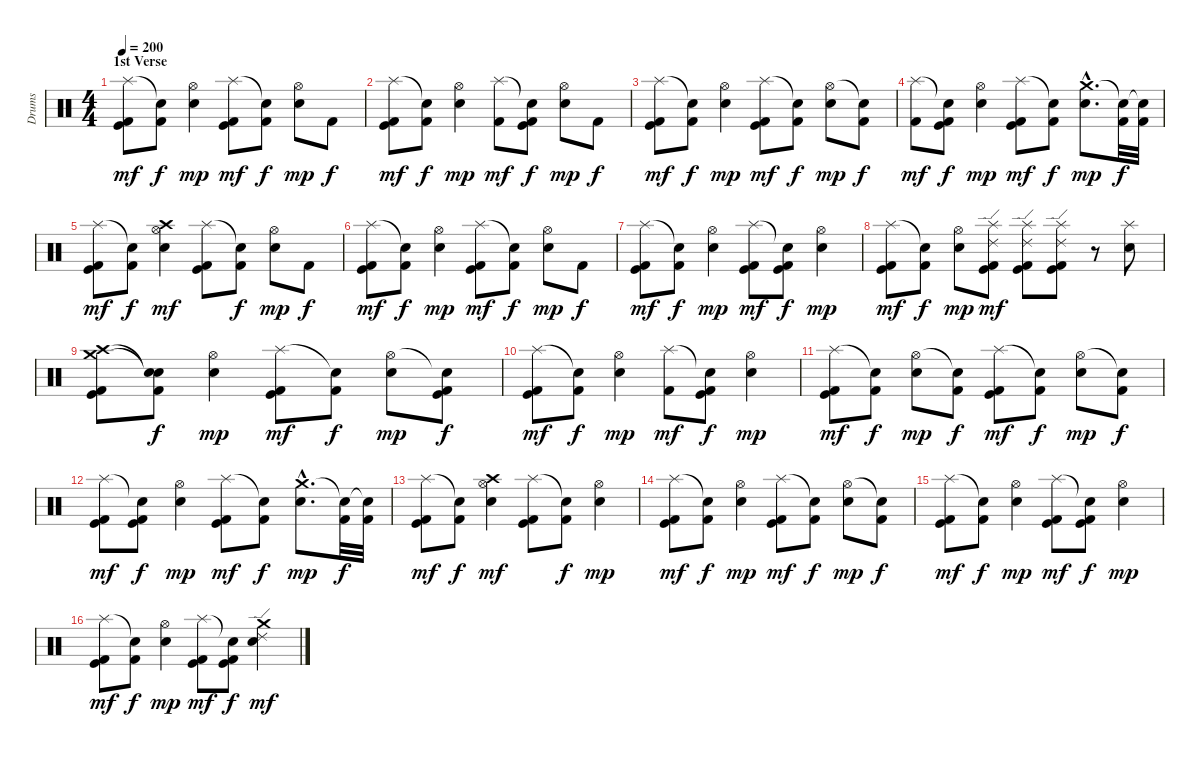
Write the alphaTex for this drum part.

\track ("Drums" "Drums") {instrument percussion}
\staff {score}
\articulation defaults
\ts (4 4)
\section ("" "1st Verse")
\tempo 200
\clef neutral
\ks c
("Splash (hit)" "Kick (hit)" "Kick (hit) 2").8{dy mf} ("Snare (hit)"{t} "Kick (hit) 2").8{dy f} ("Hi-Hat (open)" "Snare (hit) 2").4{dy mp} ("Splash (hit)" "Kick (hit)" "Kick (hit) 2").8{dy mf} ("Snare (hit)"{t} "Kick (hit) 2").8{dy f} ("Hi-Hat (open)" "Snare (hit) 2").8{dy mp} "Kick (hit) 2".8{dy f} |
("Splash (hit)" "Kick (hit)" "Kick (hit) 2").8{dy mf} ("Snare (hit)"{t} "Kick (hit) 2").8{dy f} ("Hi-Hat (open)" "Snare (hit) 2").4{dy mp} ("Splash (hit)" "Kick (hit) 2").8{dy mf} ("Snare (hit)"{t} "Kick (hit)" "Kick (hit) 2").8{dy f} ("Hi-Hat (open)" "Snare (hit) 2").8{dy mp} "Kick (hit) 2".8{dy f} |
("Splash (hit)" "Kick (hit)" "Kick (hit) 2").8{dy mf} ("Snare (hit)"{t} "Kick (hit) 2").8{dy f} ("Hi-Hat (open)" "Snare (hit) 2").4{dy mp} ("Splash (hit)" "Kick (hit)" "Kick (hit) 2").8{dy mf} ("Snare (hit)"{t} "Kick (hit) 2").8{dy f} ("Hi-Hat (open)" "Snare (hit) 2").8{dy mp} ("Snare (hit)"{t} "Kick (hit) 2").8{dy f} |
("Splash (hit)" "Kick (hit) 2").8{dy mf} ("Snare (hit)"{t} "Kick (hit)" "Kick (hit) 2").8{dy f} ("Hi-Hat (open)" "Snare (hit) 2").4{dy mp} ("Splash (hit)" "Kick (hit)" "Kick (hit) 2").8{dy mf} ("Snare (hit)"{t} "Kick (hit) 2").8{dy f} ("Crash medium (hit)"{hac} "Snare (hit) 2"{hac}).8{d dy mp} ("Snare (hit)"{t} "Kick (hit) 2").32{dy f} ("Snare (hit)"{t} "Kick (hit) 2").32 |
("Splash (hit)" "Kick (hit)" "Kick (hit) 2").8{dy mf} ("Snare (hit)"{t} "Kick (hit) 2").8{dy f} ("Crash high (hit)" "Hi-Hat (open)" "Snare (hit) 2").4{dy mf} ("Splash (hit)" "Kick (hit)" "Kick (hit) 2").8 ("Snare (hit)"{t} "Kick (hit) 2").8{dy f} ("Hi-Hat (open)" "Snare (hit) 2").8{dy mp} "Kick (hit) 2".8{dy f} |
("Splash (hit)" "Kick (hit)" "Kick (hit) 2").8{dy mf} ("Snare (hit)"{t} "Kick (hit) 2").8{dy f} ("Hi-Hat (open)" "Snare (hit) 2").4{dy mp} ("Splash (hit)" "Kick (hit)" "Kick (hit) 2").8{dy mf} ("Snare (hit)"{t} "Kick (hit) 2").8{dy f} ("Hi-Hat (open)" "Snare (hit) 2").8{dy mp} "Kick (hit) 2".8{dy f} |
("Splash (hit)" "Kick (hit)" "Kick (hit) 2").8{dy mf} ("Snare (hit)"{t} "Kick (hit) 2").8{dy f} ("Hi-Hat (open)" "Snare (hit) 2").4{dy mp} ("Splash (hit)" "Kick (hit)" "Kick (hit) 2").8{dy mf} ("Snare (hit)"{t} "Kick (hit)" "Kick (hit) 2").8{dy f} ("Hi-Hat (open)" "Snare (hit) 2").4{dy mp} |
("Splash (hit)" "Kick (hit)" "Kick (hit) 2").8{dy mf} ("Snare (hit)"{t} "Kick (hit) 2").8{dy f} ("Hi-Hat (open)" "Snare (hit) 2").8{dy mp} ("Splash (hit)" "Ride (edge) 2" "Kick (hit)" "Kick (hit) 2").8{dy mf} ("Splash (hit)" "Ride (edge) 2" "Kick (hit)" "Kick (hit) 2").8 ("Splash (hit)" "Ride (edge) 2" "Kick (hit)" "Kick (hit) 2").8 r.8 ("Splash (hit)" "Snare (hit) 2").8 |
("Crash high (hit)" "Crash medium (hit)" "Kick (hit)" "Kick (hit) 2").8 ("Snare (hit)"{t} "Snare (hit)"{t} "Kick (hit) 2").8{dy f} ("Hi-Hat (open)" "Snare (hit) 2").4{dy mp} ("Splash (hit)" "Kick (hit)" "Kick (hit) 2").8{dy mf} ("Snare (hit)"{t} "Kick (hit) 2").8{dy f} ("Hi-Hat (open)" "Snare (hit) 2").8{dy mp} ("Snare (hit)"{t} "Kick (hit) 2" "Kick (hit)").8{dy f} |
("Splash (hit)" "Kick (hit)" "Kick (hit) 2").8{dy mf} ("Snare (hit)"{t} "Kick (hit) 2").8{dy f} ("Hi-Hat (open)" "Snare (hit) 2").4{dy mp} ("Splash (hit)" "Kick (hit) 2").8{dy mf} ("Snare (hit)"{t} "Kick (hit)" "Kick (hit) 2").8{dy f} ("Hi-Hat (open)" "Snare (hit) 2").4{dy mp} |
("Splash (hit)" "Kick (hit)" "Kick (hit) 2").8{dy mf} ("Snare (hit)"{t} "Kick (hit) 2").8{dy f} ("Hi-Hat (open)" "Snare (hit) 2").8{dy mp} ("Snare (hit)"{t} "Kick (hit) 2").8{dy f} ("Splash (hit)" "Kick (hit)" "Kick (hit) 2").8{dy mf} ("Snare (hit)"{t} "Kick (hit) 2").8{dy f} ("Hi-Hat (open)" "Snare (hit) 2").8{dy mp} ("Snare (hit)"{t} "Kick (hit) 2").8{dy f} |
("Splash (hit)" "Kick (hit)" "Kick (hit) 2").8{dy mf} ("Snare (hit)"{t} "Kick (hit)" "Kick (hit) 2").8{dy f} ("Hi-Hat (open)" "Snare (hit) 2").4{dy mp} ("Splash (hit)" "Kick (hit)" "Kick (hit) 2").8{dy mf} ("Snare (hit)"{t} "Kick (hit) 2").8{dy f} ("Crash medium (hit)"{hac} "Snare (hit) 2"{hac}).8{d dy mp} ("Snare (hit)"{t} "Kick (hit) 2").32{dy f} ("Snare (hit)"{t} "Kick (hit) 2").32 |
("Splash (hit)" "Kick (hit)" "Kick (hit) 2").8{dy mf} ("Snare (hit)"{t} "Kick (hit) 2").8{dy f} ("Crash high (hit)" "Hi-Hat (open)" "Snare (hit) 2").4{dy mf} ("Splash (hit)" "Kick (hit)" "Kick (hit) 2").8 ("Snare (hit)"{t} "Kick (hit) 2").8{dy f} ("Hi-Hat (open)" "Snare (hit) 2").4{dy mp} |
("Splash (hit)" "Kick (hit)" "Kick (hit) 2").8{dy mf} ("Snare (hit)"{t} "Kick (hit) 2").8{dy f} ("Hi-Hat (open)" "Snare (hit) 2").4{dy mp} ("Splash (hit)" "Kick (hit)" "Kick (hit) 2").8{dy mf} ("Snare (hit)"{t} "Kick (hit) 2").8{dy f} ("Hi-Hat (open)" "Snare (hit) 2").8{dy mp} ("Snare (hit)"{t} "Kick (hit) 2").8{dy f} |
("Splash (hit)" "Kick (hit)" "Kick (hit) 2").8{dy mf} ("Snare (hit)"{t} "Kick (hit) 2").8{dy f} ("Hi-Hat (open)" "Snare (hit) 2").4{dy mp} ("Splash (hit)" "Kick (hit)" "Kick (hit) 2").8{dy mf} ("Snare (hit)"{t} "Kick (hit)" "Kick (hit) 2").8{dy f} ("Hi-Hat (open)" "Snare (hit) 2").4{dy mp} |
("Splash (hit)" "Kick (hit)" "Kick (hit) 2").8{dy mf} ("Snare (hit)"{t} "Kick (hit) 2").8{dy f} ("Hi-Hat (open)" "Snare (hit) 2").4{dy mp} ("Splash (hit)" "Kick (hit)" "Kick (hit) 2").8{dy mf} ("Snare (hit)"{t} "Kick (hit)" "Kick (hit) 2").8{dy f} ("Ride (edge) 2" "Crash medium (hit)" "Snare (hit) 2").4{dy mf}
